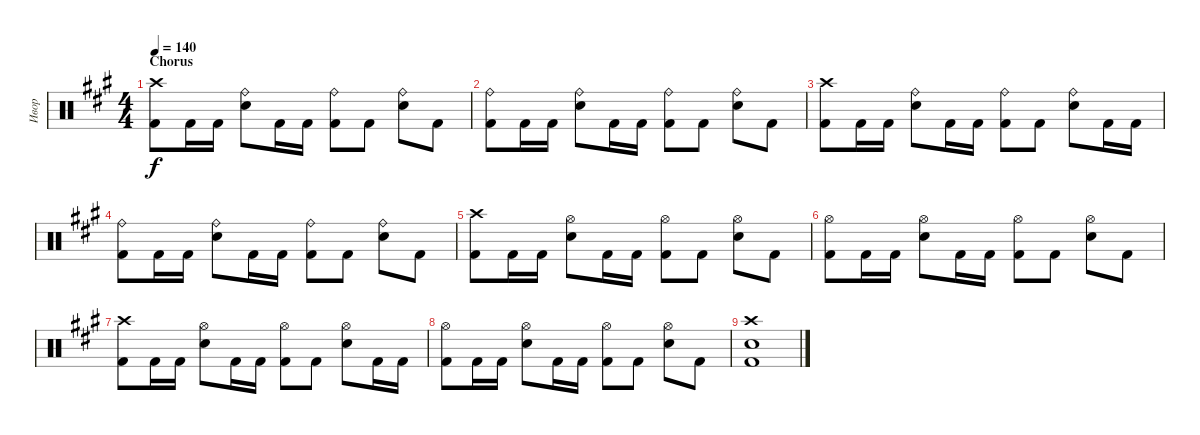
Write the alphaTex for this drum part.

\track ("Ивор" "Ивор") {instrument percussion}
\staff {score}
\articulation defaults
\ts (4 4)
\section ("" "Chorus")
\tempo 140
\clef neutral
\ks f#minor
("Crash high (hit)" "Kick (hit) 2").8{dy f} "Kick (hit) 2".16 "Kick (hit) 2".16 ("Ride (bell)" "Electric Snare (hit)").8 "Kick (hit) 2".16 "Kick (hit) 2".16 ("Ride (bell)" "Kick (hit) 2").8 "Kick (hit) 2".8 ("Ride (bell)" "Electric Snare (hit)").8 "Kick (hit) 2".8 |
("Ride (bell)" "Kick (hit) 2").8 "Kick (hit) 2".16 "Kick (hit) 2".16 ("Ride (bell)" "Electric Snare (hit)").8 "Kick (hit) 2".16 "Kick (hit) 2".16 ("Ride (bell)" "Kick (hit) 2").8 "Kick (hit) 2".8 ("Ride (bell)" "Electric Snare (hit)").8 "Kick (hit) 2".8 |
("Crash high (hit)" "Kick (hit) 2").8 "Kick (hit) 2".16 "Kick (hit) 2".16 ("Ride (bell)" "Electric Snare (hit)").8 "Kick (hit) 2".16 "Kick (hit) 2".16 ("Ride (bell)" "Kick (hit) 2").8 "Kick (hit) 2".8 ("Ride (bell)" "Electric Snare (hit)").8 "Kick (hit) 2".16 "Kick (hit) 2".16 |
("Ride (bell)" "Kick (hit) 2").8 "Kick (hit) 2".16 "Kick (hit) 2".16 ("Ride (bell)" "Electric Snare (hit)").8 "Kick (hit) 2".16 "Kick (hit) 2".16 ("Ride (bell)" "Kick (hit) 2").8 "Kick (hit) 2".8 ("Ride (bell)" "Electric Snare (hit)").8 "Kick (hit) 2".8 |
("Crash high (hit)" "Kick (hit) 2").8 "Kick (hit) 2".16 "Kick (hit) 2".16 ("Hi-Hat (open)" "Electric Snare (hit)").8 "Kick (hit) 2".16 "Kick (hit) 2".16 ("Hi-Hat (open)" "Kick (hit) 2").8 "Kick (hit) 2".8 ("Hi-Hat (open)" "Electric Snare (hit)").8 "Kick (hit) 2".8 |
("Hi-Hat (open)" "Kick (hit) 2").8 "Kick (hit) 2".16 "Kick (hit) 2".16 ("Hi-Hat (open)" "Electric Snare (hit)").8 "Kick (hit) 2".16 "Kick (hit) 2".16 ("Hi-Hat (open)" "Kick (hit) 2").8 "Kick (hit) 2".8 ("Hi-Hat (open)" "Electric Snare (hit)").8 "Kick (hit) 2".8 |
("Crash high (hit)" "Kick (hit) 2").8 "Kick (hit) 2".16 "Kick (hit) 2".16 ("Hi-Hat (open)" "Electric Snare (hit)").8 "Kick (hit) 2".16 "Kick (hit) 2".16 ("Hi-Hat (open)" "Kick (hit) 2").8 "Kick (hit) 2".8 ("Hi-Hat (open)" "Electric Snare (hit)").8 "Kick (hit) 2".16 "Kick (hit) 2".16 |
("Hi-Hat (open)" "Kick (hit) 2").8 "Kick (hit) 2".16 "Kick (hit) 2".16 ("Hi-Hat (open)" "Electric Snare (hit)").8 "Kick (hit) 2".16 "Kick (hit) 2".16 ("Hi-Hat (open)" "Kick (hit) 2").8 "Kick (hit) 2".8 ("Hi-Hat (open)" "Electric Snare (hit)").8 "Kick (hit) 2".8 |
("Crash high (hit)" "Electric Snare (hit)" "Kick (hit) 2").1
